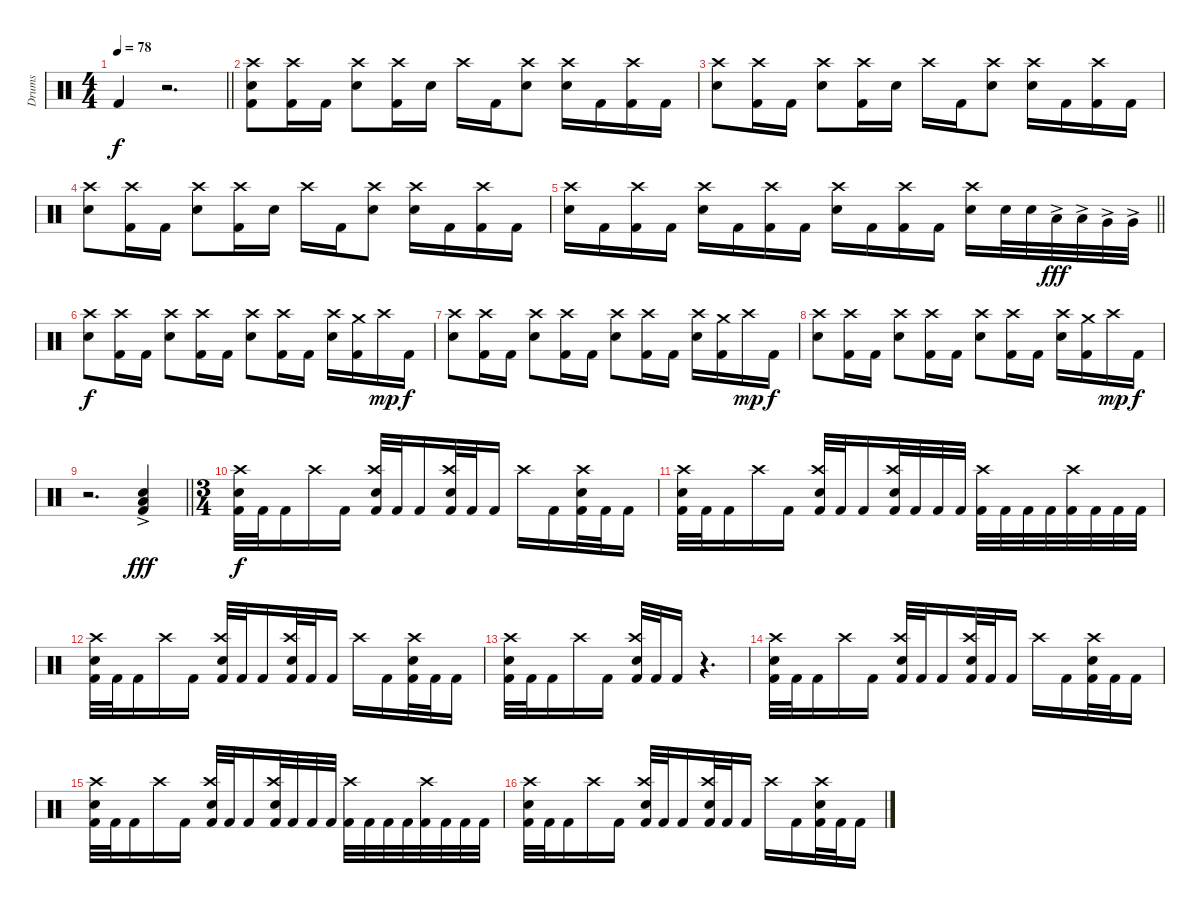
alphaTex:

\track ("Drums" "Drums") {instrument percussion}
\staff {score}
\articulation defaults
\ts (4 4)
\tempo 78
\clef neutral
\barLineRight lightlight
\ks c "Kick (hit) 2".4{dy f}
r.2{d} |
("Crash high (hit)" "Snare (hit) 2" "Kick (hit) 2").8 ("Crash high (hit)" "Kick (hit) 2").16 "Kick (hit) 2".16 ("Crash high (hit)" "Snare (hit) 2").8 ("Crash high (hit)" "Kick (hit) 2").16 "Snare (hit) 2".16 "Crash high (hit)".16 "Kick (hit) 2".16 ("Crash high (hit)" "Snare (hit) 2").8 ("Crash high (hit)" "Snare (hit) 2").16 "Kick (hit) 2".16 ("Crash high (hit)" "Kick (hit) 2").16 "Kick (hit) 2".16 |
("Crash high (hit)" "Snare (hit) 2").8 ("Crash high (hit)" "Kick (hit) 2").16 "Kick (hit) 2".16 ("Crash high (hit)" "Snare (hit) 2").8 ("Crash high (hit)" "Kick (hit) 2").16 "Snare (hit) 2".16 "Crash high (hit)".16 "Kick (hit) 2".16 ("Crash high (hit)" "Snare (hit) 2").8 ("Crash high (hit)" "Snare (hit) 2").16 "Kick (hit) 2".16 ("Crash high (hit)" "Kick (hit) 2").16 "Kick (hit) 2".16 |
("Crash high (hit)" "Snare (hit) 2").8 ("Crash high (hit)" "Kick (hit) 2").16 "Kick (hit) 2".16 ("Crash high (hit)" "Snare (hit) 2").8 ("Crash high (hit)" "Kick (hit) 2").16 "Snare (hit) 2".16 "Crash high (hit)".16 "Kick (hit) 2".16 ("Crash high (hit)" "Snare (hit) 2").8 ("Crash high (hit)" "Snare (hit) 2").16 "Kick (hit) 2".16 ("Crash high (hit)" "Kick (hit) 2").16 "Kick (hit) 2".16 |
\barLineRight lightlight
("Crash high (hit)" "Snare (hit) 2").16 "Kick (hit) 2".16 ("Crash high (hit)" "Kick (hit) 2").16 "Kick (hit) 2".16 ("Crash high (hit)" "Snare (hit) 2").16 "Kick (hit) 2".16 ("Crash high (hit)" "Kick (hit) 2").16 "Kick (hit) 2".16 ("Crash high (hit)" "Snare (hit) 2").16 "Kick (hit) 2".16 ("Crash high (hit)" "Kick (hit) 2").16 "Kick (hit) 2".16 ("Crash high (hit)" "Snare (hit) 2").16 "Snare (hit) 2".32 "Snare (hit) 2".32 "Low Tom (hit)"{ac}.32{dy fff} "Low Tom (hit)"{ac}.32 "Very Low Tom (hit)"{ac}.32 "Very Low Tom (hit)"{ac}.32 |
("Crash high (hit)" "Snare (hit) 2").8{dy f} ("Crash high (hit)" "Kick (hit) 2").16 "Kick (hit) 2".16 ("Crash high (hit)" "Snare (hit) 2").8 ("Crash high (hit)" "Kick (hit) 2").16 "Kick (hit) 2".16 ("Crash high (hit)" "Snare (hit) 2").8 ("Crash high (hit)" "Kick (hit) 2").16 "Kick (hit) 2".16 ("Crash high (hit)" "Snare (hit) 2").16 ("Crash medium (hit)" "Kick (hit) 2").16 "Crash high (hit)".16{dy mp} "Kick (hit) 2".16{dy f} |
("Crash high (hit)" "Snare (hit) 2").8 ("Crash high (hit)" "Kick (hit) 2").16 "Kick (hit) 2".16 ("Crash high (hit)" "Snare (hit) 2").8 ("Crash high (hit)" "Kick (hit) 2").16 "Kick (hit) 2".16 ("Crash high (hit)" "Snare (hit) 2").8 ("Crash high (hit)" "Kick (hit) 2").16 "Kick (hit) 2".16 ("Crash high (hit)" "Snare (hit) 2").16 ("Crash medium (hit)" "Kick (hit) 2").16 "Crash high (hit)".16{dy mp} "Kick (hit) 2".16{dy f} |
("Crash high (hit)" "Snare (hit) 2").8 ("Crash high (hit)" "Kick (hit) 2").16 "Kick (hit) 2".16 ("Crash high (hit)" "Snare (hit) 2").8 ("Crash high (hit)" "Kick (hit) 2").16 "Kick (hit) 2".16 ("Crash high (hit)" "Snare (hit) 2").8 ("Crash high (hit)" "Kick (hit) 2").16 "Kick (hit) 2".16 ("Crash high (hit)" "Snare (hit) 2").16 ("Crash medium (hit)" "Kick (hit) 2").16 "Crash high (hit)".16{dy mp} "Kick (hit) 2".16{dy f} |
\barLineRight lightlight
r.2{d} ("Snare (hit) 2"{ac} "Low Floor Tom (hit)"{ac} "Kick (hit) 2").4{dy fff} |
\ts (3 4)
("Crash high (hit)" "Snare (hit) 2" "Kick (hit) 2").32{dy f} "Kick (hit) 2".32 "Kick (hit) 2".16 "Crash high (hit)".16 "Kick (hit) 2".16 ("Crash high (hit)" "Snare (hit) 2" "Kick (hit) 2").32 "Kick (hit) 2".32 "Kick (hit) 2".16 ("Crash high (hit)" "Snare (hit) 2" "Kick (hit) 2").32 "Kick (hit) 2".32 "Kick (hit) 2".16 "Crash high (hit)".16 "Kick (hit) 2".16 ("Crash high (hit)" "Snare (hit) 2" "Kick (hit) 2").32 "Kick (hit) 2".32 "Kick (hit) 2".16 |
("Crash high (hit)" "Snare (hit) 2" "Kick (hit) 2").32 "Kick (hit) 2".32 "Kick (hit) 2".16 "Crash high (hit)".16 "Kick (hit) 2".16 ("Crash high (hit)" "Snare (hit) 2" "Kick (hit) 2").32 "Kick (hit) 2".32 "Kick (hit) 2".16 ("Crash high (hit)" "Snare (hit) 2" "Kick (hit) 2").32 "Kick (hit) 2".32 "Kick (hit) 2".32 "Kick (hit) 2".32 ("Crash high (hit)" "Kick (hit) 2").32 "Kick (hit) 2".32 "Kick (hit) 2".32 "Kick (hit) 2".32 ("Crash high (hit)" "Kick (hit) 2").32 "Kick (hit) 2".32 "Kick (hit) 2".32 "Kick (hit) 2".32 |
("Crash high (hit)" "Snare (hit) 2" "Kick (hit) 2").32 "Kick (hit) 2".32 "Kick (hit) 2".16 "Crash high (hit)".16 "Kick (hit) 2".16 ("Crash high (hit)" "Snare (hit) 2" "Kick (hit) 2").32 "Kick (hit) 2".32 "Kick (hit) 2".16 ("Crash high (hit)" "Snare (hit) 2" "Kick (hit) 2").32 "Kick (hit) 2".32 "Kick (hit) 2".16 "Crash high (hit)".16 "Kick (hit) 2".16 ("Crash high (hit)" "Snare (hit) 2" "Kick (hit) 2").32 "Kick (hit) 2".32 "Kick (hit) 2".16 |
("Crash high (hit)" "Snare (hit) 2" "Kick (hit) 2").32 "Kick (hit) 2".32 "Kick (hit) 2".16 "Crash high (hit)".16 "Kick (hit) 2".16 ("Crash high (hit)" "Snare (hit) 2" "Kick (hit) 2").32 "Kick (hit) 2".32 "Kick (hit) 2".16 r.4{d} |
("Crash high (hit)" "Snare (hit) 2" "Kick (hit) 2").32 "Kick (hit) 2".32 "Kick (hit) 2".16 "Crash high (hit)".16 "Kick (hit) 2".16 ("Crash high (hit)" "Snare (hit) 2" "Kick (hit) 2").32 "Kick (hit) 2".32 "Kick (hit) 2".16 ("Crash high (hit)" "Snare (hit) 2" "Kick (hit) 2").32 "Kick (hit) 2".32 "Kick (hit) 2".16 "Crash high (hit)".16 "Kick (hit) 2".16 ("Crash high (hit)" "Snare (hit) 2" "Kick (hit) 2").32 "Kick (hit) 2".32 "Kick (hit) 2".16 |
("Crash high (hit)" "Snare (hit) 2" "Kick (hit) 2").32 "Kick (hit) 2".32 "Kick (hit) 2".16 "Crash high (hit)".16 "Kick (hit) 2".16 ("Crash high (hit)" "Snare (hit) 2" "Kick (hit) 2").32 "Kick (hit) 2".32 "Kick (hit) 2".16 ("Crash high (hit)" "Snare (hit) 2" "Kick (hit) 2").32 "Kick (hit) 2".32 "Kick (hit) 2".32 "Kick (hit) 2".32 ("Crash high (hit)" "Kick (hit) 2").32 "Kick (hit) 2".32 "Kick (hit) 2".32 "Kick (hit) 2".32 ("Crash high (hit)" "Kick (hit) 2").32 "Kick (hit) 2".32 "Kick (hit) 2".32 "Kick (hit) 2".32 |
("Crash high (hit)" "Snare (hit) 2" "Kick (hit) 2").32 "Kick (hit) 2".32 "Kick (hit) 2".16 "Crash high (hit)".16 "Kick (hit) 2".16 ("Crash high (hit)" "Snare (hit) 2" "Kick (hit) 2").32 "Kick (hit) 2".32 "Kick (hit) 2".16 ("Crash high (hit)" "Snare (hit) 2" "Kick (hit) 2").32 "Kick (hit) 2".32 "Kick (hit) 2".16 "Crash high (hit)".16 "Kick (hit) 2".16 ("Crash high (hit)" "Snare (hit) 2" "Kick (hit) 2").32 "Kick (hit) 2".32 "Kick (hit) 2".16
